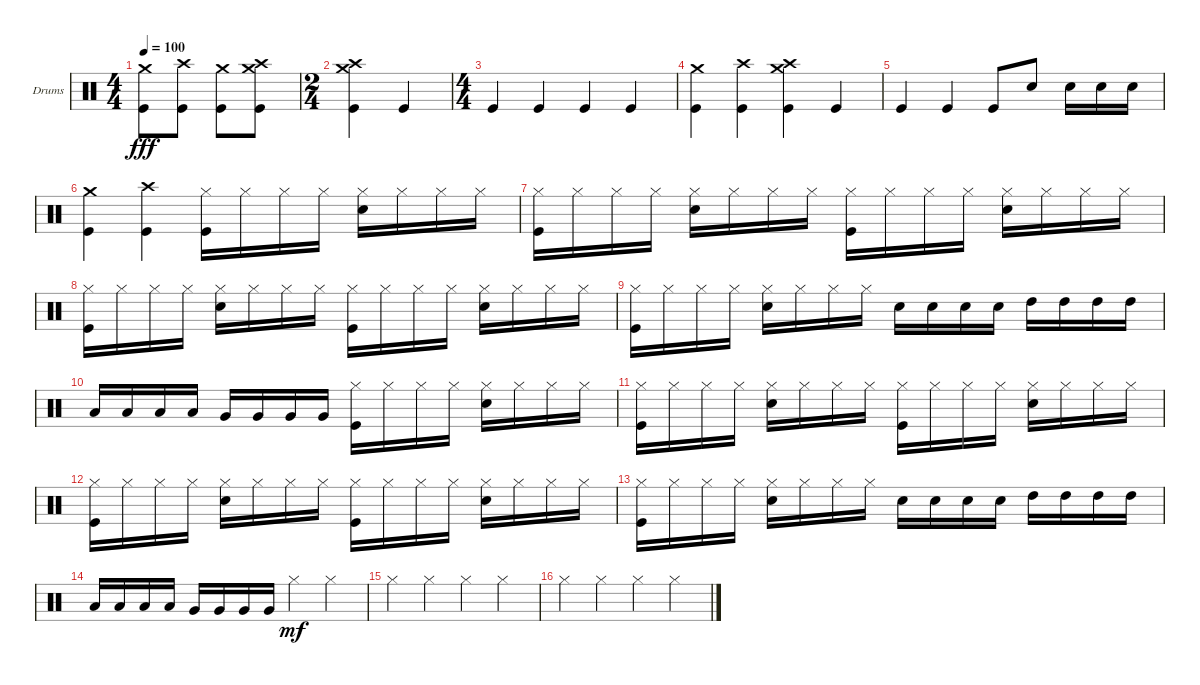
\bracketExtendMode groupsimilarinstruments
\firstSystemTrackNameOrientation horizontal
\otherSystemsTrackNameOrientation horizontal
\track ("Drumkit" "Drums") {instrument percussion}
\staff {score}
\articulation defaults
\ts (4 4)
\tempo 100
\clef neutral
\ks c
("Kick (hit)" "Crash medium (hit)").8{dy fff} ("Kick (hit)" "Crash high (hit)").8 ("Kick (hit)" "Crash medium (hit)").8 ("Kick (hit)" "Crash high (hit)" "Crash medium (hit)").8 |
\ts (2 4)
("Crash high (hit)" "Crash medium (hit)" "Kick (hit)").4 "Kick (hit)".4 |
\ts (4 4)
"Kick (hit)".4 "Kick (hit)".4 "Kick (hit)".4 "Kick (hit)".4 |
("Kick (hit)" "Crash medium (hit)").4 ("Kick (hit)" "Crash high (hit)").4 ("Kick (hit)" "Crash medium (hit)" "Crash high (hit)").4 "Kick (hit)".4 |
"Kick (hit)".4 "Kick (hit)".4 "Kick (hit)".8 "Snare (hit) 2".8 "Snare (hit) 2".16 "Snare (hit) 2".16 "Snare (hit) 2".16 |
("Kick (hit)" "Crash medium (hit)").4 ("Kick (hit)" "Crash high (hit)").4 ("Kick (hit)" "Hi-Hat (closed)").16 "Hi-Hat (closed)".16 "Hi-Hat (closed)".16 "Hi-Hat (closed)".16 ("Snare (hit) 2" "Hi-Hat (closed)").16 "Hi-Hat (closed)".16 "Hi-Hat (closed)".16 "Hi-Hat (closed)".16 |
("Kick (hit)" "Hi-Hat (closed)").16 "Hi-Hat (closed)".16 "Hi-Hat (closed)".16 "Hi-Hat (closed)".16 ("Snare (hit) 2" "Hi-Hat (closed)").16 "Hi-Hat (closed)".16 "Hi-Hat (closed)".16 "Hi-Hat (closed)".16 ("Kick (hit)" "Hi-Hat (closed)").16 "Hi-Hat (closed)".16 "Hi-Hat (closed)".16 "Hi-Hat (closed)".16 ("Snare (hit) 2" "Hi-Hat (closed)").16 "Hi-Hat (closed)".16 "Hi-Hat (closed)".16 "Hi-Hat (closed)".16 |
("Kick (hit)" "Hi-Hat (closed)").16 "Hi-Hat (closed)".16 "Hi-Hat (closed)".16 "Hi-Hat (closed)".16 ("Snare (hit) 2" "Hi-Hat (closed)").16 "Hi-Hat (closed)".16 "Hi-Hat (closed)".16 "Hi-Hat (closed)".16 ("Kick (hit)" "Hi-Hat (closed)").16 "Hi-Hat (closed)".16 "Hi-Hat (closed)".16 "Hi-Hat (closed)".16 ("Snare (hit) 2" "Hi-Hat (closed)").16 "Hi-Hat (closed)".16 "Hi-Hat (closed)".16 "Hi-Hat (closed)".16 |
("Kick (hit)" "Hi-Hat (closed)").16 "Hi-Hat (closed)".16 "Hi-Hat (closed)".16 "Hi-Hat (closed)".16 ("Snare (hit) 2" "Hi-Hat (closed)").16 "Hi-Hat (closed)".16 "Hi-Hat (closed)".16 "Hi-Hat (closed)".16 "Snare (hit) 2".16 "Snare (hit) 2".16 "Snare (hit) 2".16 "Snare (hit) 2".16 "High Tom (hit)".16 "High Tom (hit)".16 "High Tom (hit)".16 "High Tom (hit)".16 |
"Low Tom (hit)".16 "Low Tom (hit)".16 "Low Tom (hit)".16 "Low Tom (hit)".16 "Very Low Tom (hit)".16 "Very Low Tom (hit)".16 "Very Low Tom (hit)".16 "Very Low Tom (hit)".16 ("Kick (hit)" "Hi-Hat (closed)").16 "Hi-Hat (closed)".16 "Hi-Hat (closed)".16 "Hi-Hat (closed)".16 ("Snare (hit) 2" "Hi-Hat (closed)").16 "Hi-Hat (closed)".16 "Hi-Hat (closed)".16 "Hi-Hat (closed)".16 |
("Kick (hit)" "Hi-Hat (closed)").16 "Hi-Hat (closed)".16 "Hi-Hat (closed)".16 "Hi-Hat (closed)".16 ("Snare (hit) 2" "Hi-Hat (closed)").16 "Hi-Hat (closed)".16 "Hi-Hat (closed)".16 "Hi-Hat (closed)".16 ("Kick (hit)" "Hi-Hat (closed)").16 "Hi-Hat (closed)".16 "Hi-Hat (closed)".16 "Hi-Hat (closed)".16 ("Snare (hit) 2" "Hi-Hat (closed)").16 "Hi-Hat (closed)".16 "Hi-Hat (closed)".16 "Hi-Hat (closed)".16 |
("Kick (hit)" "Hi-Hat (closed)").16 "Hi-Hat (closed)".16 "Hi-Hat (closed)".16 "Hi-Hat (closed)".16 ("Snare (hit) 2" "Hi-Hat (closed)").16 "Hi-Hat (closed)".16 "Hi-Hat (closed)".16 "Hi-Hat (closed)".16 ("Kick (hit)" "Hi-Hat (closed)").16 "Hi-Hat (closed)".16 "Hi-Hat (closed)".16 "Hi-Hat (closed)".16 ("Snare (hit) 2" "Hi-Hat (closed)").16 "Hi-Hat (closed)".16 "Hi-Hat (closed)".16 "Hi-Hat (closed)".16 |
("Kick (hit)" "Hi-Hat (closed)").16 "Hi-Hat (closed)".16 "Hi-Hat (closed)".16 "Hi-Hat (closed)".16 ("Snare (hit) 2" "Hi-Hat (closed)").16 "Hi-Hat (closed)".16 "Hi-Hat (closed)".16 "Hi-Hat (closed)".16 "Snare (hit) 2".16 "Snare (hit) 2".16 "Snare (hit) 2".16 "Snare (hit) 2".16 "High Tom (hit)".16 "High Tom (hit)".16 "High Tom (hit)".16 "High Tom (hit)".16 |
"Low Tom (hit)".16 "Low Tom (hit)".16 "Low Tom (hit)".16 "Low Tom (hit)".16 "Very Low Tom (hit)".16 "Very Low Tom (hit)".16 "Very Low Tom (hit)".16 "Very Low Tom (hit)".16 "Hi-Hat (closed)".4{dy mf} "Hi-Hat (closed)".4 |
"Hi-Hat (closed)".4 "Hi-Hat (closed)".4 "Hi-Hat (closed)".4 "Hi-Hat (closed)".4 |
"Hi-Hat (closed)".4 "Hi-Hat (closed)".4 "Hi-Hat (closed)".4 "Hi-Hat (closed)".4
